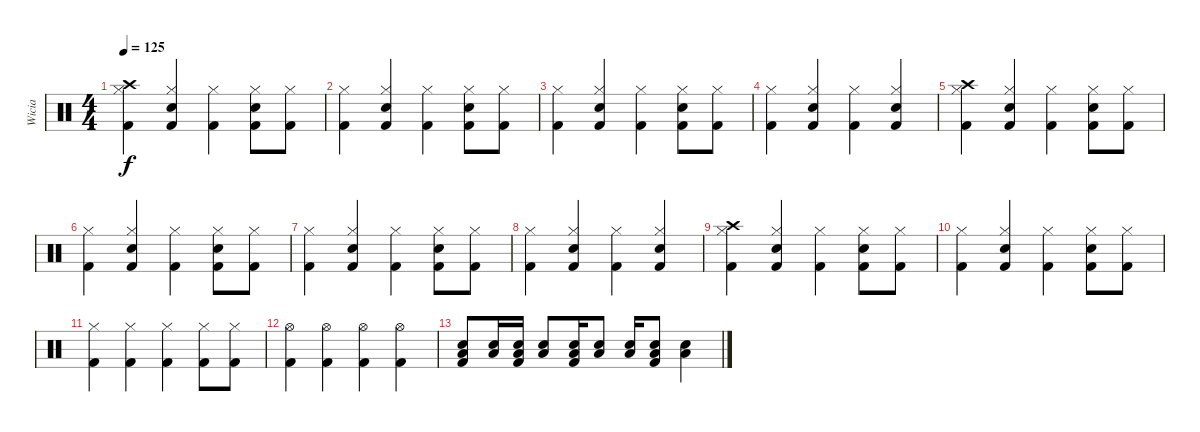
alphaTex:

\track ("Wicia" "Wicia") {instrument percussion}
\staff {score}
\articulation defaults
\ts (4 4)
\tempo 125
\clef neutral
\ks c
("Kick (hit) 2" "Hi-Hat (closed)" "Crash high (hit)").4{dy f} ("Kick (hit) 2" "Hi-Hat (closed)" "Electric Snare (hit)").4 ("Kick (hit) 2" "Hi-Hat (closed)").4 ("Kick (hit) 2" "Hi-Hat (closed)" "Electric Snare (hit)").8 ("Kick (hit) 2" "Hi-Hat (closed)").8 |
("Kick (hit) 2" "Hi-Hat (closed)").4 ("Kick (hit) 2" "Hi-Hat (closed)" "Electric Snare (hit)").4 ("Kick (hit) 2" "Hi-Hat (closed)").4 ("Kick (hit) 2" "Hi-Hat (closed)" "Electric Snare (hit)").8 ("Kick (hit) 2" "Hi-Hat (closed)").8 |
("Kick (hit) 2" "Hi-Hat (closed)").4 ("Kick (hit) 2" "Hi-Hat (closed)" "Electric Snare (hit)").4 ("Kick (hit) 2" "Hi-Hat (closed)").4 ("Kick (hit) 2" "Hi-Hat (closed)" "Electric Snare (hit)").8 ("Kick (hit) 2" "Hi-Hat (closed)").8 |
("Kick (hit) 2" "Hi-Hat (closed)").4 ("Kick (hit) 2" "Hi-Hat (closed)" "Electric Snare (hit)").4 ("Kick (hit) 2" "Hi-Hat (closed)").4 ("Kick (hit) 2" "Hi-Hat (closed)" "Electric Snare (hit)").4 |
("Kick (hit) 2" "Hi-Hat (closed)" "Crash high (hit)").4 ("Kick (hit) 2" "Hi-Hat (closed)" "Electric Snare (hit)").4 ("Kick (hit) 2" "Hi-Hat (closed)").4 ("Kick (hit) 2" "Hi-Hat (closed)" "Electric Snare (hit)").8 ("Kick (hit) 2" "Hi-Hat (closed)").8 |
("Kick (hit) 2" "Hi-Hat (closed)").4 ("Kick (hit) 2" "Hi-Hat (closed)" "Electric Snare (hit)").4 ("Kick (hit) 2" "Hi-Hat (closed)").4 ("Kick (hit) 2" "Hi-Hat (closed)" "Electric Snare (hit)").8 ("Kick (hit) 2" "Hi-Hat (closed)").8 |
("Kick (hit) 2" "Hi-Hat (closed)").4 ("Kick (hit) 2" "Hi-Hat (closed)" "Electric Snare (hit)").4 ("Kick (hit) 2" "Hi-Hat (closed)").4 ("Kick (hit) 2" "Hi-Hat (closed)" "Electric Snare (hit)").8 ("Kick (hit) 2" "Hi-Hat (closed)").8 |
("Kick (hit) 2" "Hi-Hat (closed)").4 ("Kick (hit) 2" "Hi-Hat (closed)" "Electric Snare (hit)").4 ("Kick (hit) 2" "Hi-Hat (closed)").4 ("Kick (hit) 2" "Hi-Hat (closed)" "Electric Snare (hit)").4 |
("Kick (hit) 2" "Hi-Hat (closed)" "Crash high (hit)").4 ("Kick (hit) 2" "Hi-Hat (closed)" "Electric Snare (hit)").4 ("Kick (hit) 2" "Hi-Hat (closed)").4 ("Kick (hit) 2" "Hi-Hat (closed)" "Electric Snare (hit)").8 ("Kick (hit) 2" "Hi-Hat (closed)").8 |
("Kick (hit) 2" "Hi-Hat (closed)").4 ("Kick (hit) 2" "Hi-Hat (closed)" "Electric Snare (hit)").4 ("Kick (hit) 2" "Hi-Hat (closed)").4 ("Kick (hit) 2" "Hi-Hat (closed)" "Electric Snare (hit)").8 ("Kick (hit) 2" "Hi-Hat (closed)").8 |
("Kick (hit) 2" "Hi-Hat (closed)").4 ("Kick (hit) 2" "Hi-Hat (closed)").4 ("Kick (hit) 2" "Hi-Hat (closed)").4 ("Kick (hit) 2" "Hi-Hat (closed)").8 ("Kick (hit) 2" "Hi-Hat (closed)").8 |
("Kick (hit) 2" "Hi-Hat (open)").4 ("Kick (hit) 2" "Hi-Hat (open)").4 ("Kick (hit) 2" "Hi-Hat (open)").4 ("Kick (hit) 2" "Hi-Hat (open)").4 |
("Electric Snare (hit)" "Low Tom (hit)" "Kick (hit) 2").8 ("Electric Snare (hit)" "Low Tom (hit)").16 ("Electric Snare (hit)" "Low Tom (hit)" "Kick (hit) 2").16 ("Electric Snare (hit)" "Low Tom (hit)").8 ("Electric Snare (hit)" "Low Tom (hit)" "Kick (hit) 2").16 ("Electric Snare (hit)" "Low Tom (hit)").8 ("Electric Snare (hit)" "Low Tom (hit)").16 ("Electric Snare (hit)" "Low Tom (hit)" "Kick (hit) 2").8 ("Electric Snare (hit)" "Low Tom (hit)").4
